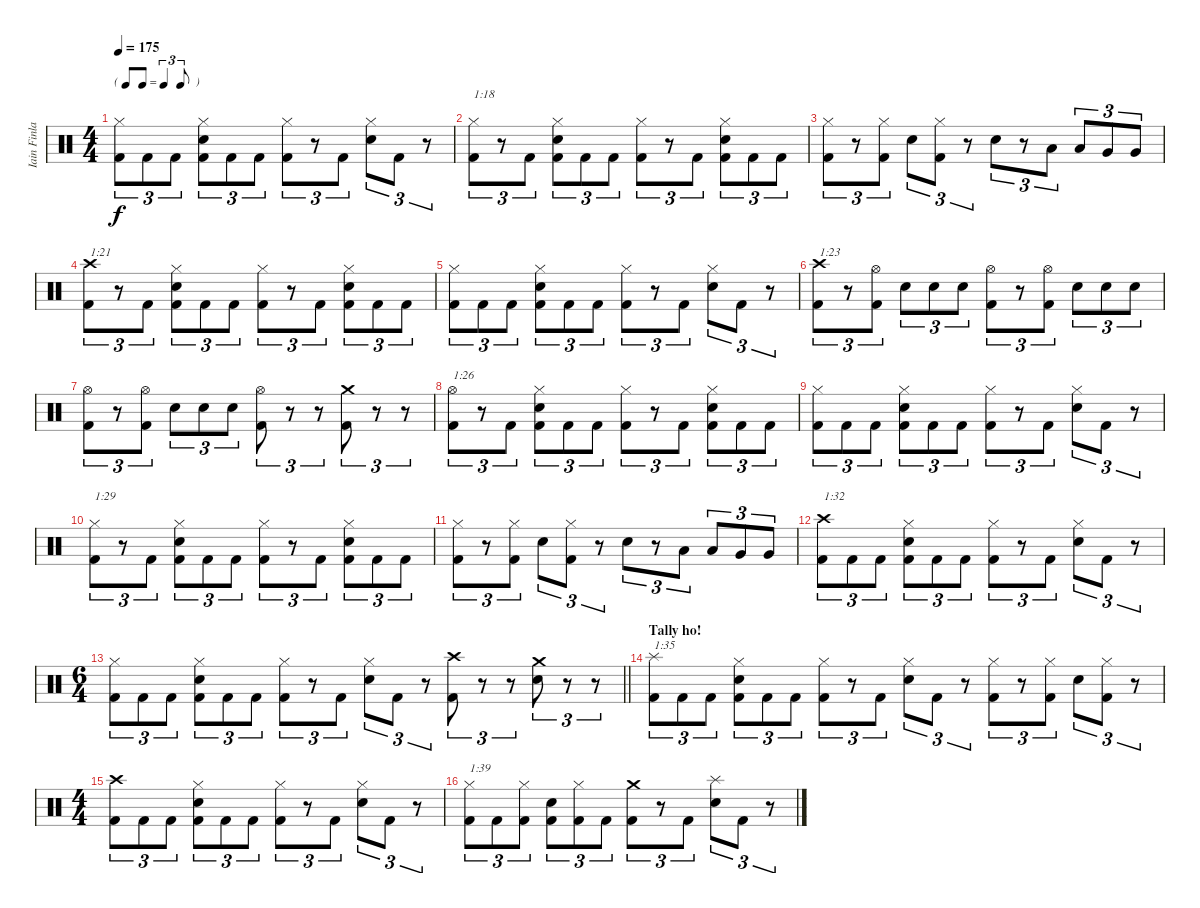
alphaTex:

\track ("Iain Finlay" "Iain Finla") {instrument percussion}
\staff {score}
\articulation defaults
\ts (4 4)
\tf triplet8th
\tempo 175
\clef neutral
\ks c
("Hi-Hat (closed)" "Kick (hit) 2").8{tu (3 2) dy f} "Kick (hit) 2".8{tu (3 2)} "Kick (hit) 2".8{tu (3 2)} ("Hi-Hat (closed)" "Electric Snare (hit)" "Kick (hit) 2").8{tu (3 2)} "Kick (hit) 2".8{tu (3 2)} "Kick (hit) 2".8{tu (3 2)} ("Hi-Hat (closed)" "Kick (hit) 2").8{tu (3 2)} r.8{tu (3 2)} "Kick (hit) 2".8{tu (3 2)} ("Hi-Hat (closed)" "Electric Snare (hit)").8{tu (3 2)} "Kick (hit) 2".8{tu (3 2)} r.8{tu (3 2)} |
("Hi-Hat (closed)" "Kick (hit) 2").8{tu (3 2) txt "1:18"} r.8{tu (3 2)} "Kick (hit) 2".8{tu (3 2)} ("Hi-Hat (closed)" "Electric Snare (hit)" "Kick (hit) 2").8{tu (3 2)} "Kick (hit) 2".8{tu (3 2)} "Kick (hit) 2".8{tu (3 2)} ("Hi-Hat (closed)" "Kick (hit) 2").8{tu (3 2)} r.8{tu (3 2)} "Kick (hit) 2".8{tu (3 2)} ("Hi-Hat (closed)" "Electric Snare (hit)" "Kick (hit) 2").8{tu (3 2)} "Kick (hit) 2".8{tu (3 2)} "Kick (hit) 2".8{tu (3 2)} |
("Hi-Hat (closed)" "Kick (hit) 2").8{tu (3 2)} r.8{tu (3 2)} ("Hi-Hat (closed)" "Kick (hit) 2").8{tu (3 2)} "Electric Snare (hit)".8{tu (3 2)} ("Hi-Hat (closed)" "Kick (hit) 2").8{tu (3 2)} r.8{tu (3 2)} "Electric Snare (hit)".8{tu (3 2)} r.8{tu (3 2)} "Low Tom (hit)".8{tu (3 2)} "Low Tom (hit)".8{tu (3 2)} "Very Low Tom (hit)".8{tu (3 2)} "Very Low Tom (hit)".8{tu (3 2)} |
("Crash high (hit)" "Kick (hit) 2").8{tu (3 2) txt "1:21"} r.8{tu (3 2)} "Kick (hit) 2".8{tu (3 2)} ("Hi-Hat (closed)" "Electric Snare (hit)" "Kick (hit) 2").8{tu (3 2)} "Kick (hit) 2".8{tu (3 2)} "Kick (hit) 2".8{tu (3 2)} ("Hi-Hat (closed)" "Kick (hit) 2").8{tu (3 2)} r.8{tu (3 2)} "Kick (hit) 2".8{tu (3 2)} ("Hi-Hat (closed)" "Electric Snare (hit)" "Kick (hit) 2").8{tu (3 2)} "Kick (hit) 2".8{tu (3 2)} "Kick (hit) 2".8{tu (3 2)} |
("Hi-Hat (closed)" "Kick (hit) 2").8{tu (3 2)} "Kick (hit) 2".8{tu (3 2)} "Kick (hit) 2".8{tu (3 2)} ("Hi-Hat (closed)" "Electric Snare (hit)" "Kick (hit) 2").8{tu (3 2)} "Kick (hit) 2".8{tu (3 2)} "Kick (hit) 2".8{tu (3 2)} ("Hi-Hat (closed)" "Kick (hit) 2").8{tu (3 2)} r.8{tu (3 2)} "Kick (hit) 2".8{tu (3 2)} ("Hi-Hat (closed)" "Electric Snare (hit)").8{tu (3 2)} "Kick (hit) 2".8{tu (3 2)} r.8{tu (3 2)} |
("Crash high (hit)" "Kick (hit) 2").8{tu (3 2) txt "1:23"} r.8{tu (3 2)} ("Hi-Hat (open)" "Kick (hit) 2").8{tu (3 2)} "Electric Snare (hit)".8{tu (3 2)} "Electric Snare (hit)".8{tu (3 2)} "Electric Snare (hit)".8{tu (3 2)} ("Hi-Hat (open)" "Kick (hit) 2").8{tu (3 2)} r.8{tu (3 2)} ("Hi-Hat (open)" "Kick (hit) 2").8{tu (3 2)} "Electric Snare (hit)".8{tu (3 2)} "Electric Snare (hit)".8{tu (3 2)} "Electric Snare (hit)".8{tu (3 2)} |
("Hi-Hat (open)" "Kick (hit) 2").8{tu (3 2)} r.8{tu (3 2)} ("Hi-Hat (open)" "Kick (hit) 2").8{tu (3 2)} "Electric Snare (hit)".8{tu (3 2)} "Electric Snare (hit)".8{tu (3 2)} "Electric Snare (hit)".8{tu (3 2)} ("Hi-Hat (open)" "Kick (hit) 2").8{tu (3 2)} r.8{tu (3 2)} r.8{tu (3 2)} ("Crash medium (hit)" "Kick (hit) 2").8{tu (3 2)} r.8{tu (3 2)} r.8{tu (3 2)} |
("Hi-Hat (open)" "Kick (hit) 2").8{tu (3 2) txt "1:26"} r.8{tu (3 2)} "Kick (hit) 2".8{tu (3 2)} ("Hi-Hat (closed)" "Electric Snare (hit)" "Kick (hit) 2").8{tu (3 2)} "Kick (hit) 2".8{tu (3 2)} "Kick (hit) 2".8{tu (3 2)} ("Hi-Hat (closed)" "Kick (hit) 2").8{tu (3 2)} r.8{tu (3 2)} "Kick (hit) 2".8{tu (3 2)} ("Hi-Hat (closed)" "Electric Snare (hit)" "Kick (hit) 2").8{tu (3 2)} "Kick (hit) 2".8{tu (3 2)} "Kick (hit) 2".8{tu (3 2)} |
("Hi-Hat (closed)" "Kick (hit) 2").8{tu (3 2)} "Kick (hit) 2".8{tu (3 2)} "Kick (hit) 2".8{tu (3 2)} ("Hi-Hat (closed)" "Electric Snare (hit)" "Kick (hit) 2").8{tu (3 2)} "Kick (hit) 2".8{tu (3 2)} "Kick (hit) 2".8{tu (3 2)} ("Hi-Hat (closed)" "Kick (hit) 2").8{tu (3 2)} r.8{tu (3 2)} "Kick (hit) 2".8{tu (3 2)} ("Hi-Hat (closed)" "Electric Snare (hit)").8{tu (3 2)} "Kick (hit) 2".8{tu (3 2)} r.8{tu (3 2)} |
("Hi-Hat (closed)" "Kick (hit) 2").8{tu (3 2) txt "1:29"} r.8{tu (3 2)} "Kick (hit) 2".8{tu (3 2)} ("Hi-Hat (closed)" "Electric Snare (hit)" "Kick (hit) 2").8{tu (3 2)} "Kick (hit) 2".8{tu (3 2)} "Kick (hit) 2".8{tu (3 2)} ("Hi-Hat (closed)" "Kick (hit) 2").8{tu (3 2)} r.8{tu (3 2)} "Kick (hit) 2".8{tu (3 2)} ("Hi-Hat (closed)" "Electric Snare (hit)" "Kick (hit) 2").8{tu (3 2)} "Kick (hit) 2".8{tu (3 2)} "Kick (hit) 2".8{tu (3 2)} |
("Hi-Hat (closed)" "Kick (hit) 2").8{tu (3 2)} r.8{tu (3 2)} ("Hi-Hat (closed)" "Kick (hit) 2").8{tu (3 2)} "Electric Snare (hit)".8{tu (3 2)} ("Hi-Hat (closed)" "Kick (hit) 2").8{tu (3 2)} r.8{tu (3 2)} "Electric Snare (hit)".8{tu (3 2)} r.8{tu (3 2)} "Low Tom (hit)".8{tu (3 2)} "Low Tom (hit)".8{tu (3 2)} "Very Low Tom (hit)".8{tu (3 2)} "Very Low Tom (hit)".8{tu (3 2)} |
("Crash high (hit)" "Kick (hit) 2").8{tu (3 2) txt "1:32"} "Kick (hit) 2".8{tu (3 2)} "Kick (hit) 2".8{tu (3 2)} ("Hi-Hat (closed)" "Electric Snare (hit)" "Kick (hit) 2").8{tu (3 2)} "Kick (hit) 2".8{tu (3 2)} "Kick (hit) 2".8{tu (3 2)} ("Hi-Hat (closed)" "Kick (hit) 2").8{tu (3 2)} r.8{tu (3 2)} "Kick (hit) 2".8{tu (3 2)} ("Hi-Hat (closed)" "Electric Snare (hit)").8{tu (3 2)} "Kick (hit) 2".8{tu (3 2)} r.8{tu (3 2)} |
\ts (6 4)
\barLineRight lightlight
("Hi-Hat (closed)" "Kick (hit) 2").8{tu (3 2)} "Kick (hit) 2".8{tu (3 2)} "Kick (hit) 2".8{tu (3 2)} ("Hi-Hat (closed)" "Electric Snare (hit)" "Kick (hit) 2").8{tu (3 2)} "Kick (hit) 2".8{tu (3 2)} "Kick (hit) 2".8{tu (3 2)} ("Hi-Hat (closed)" "Kick (hit) 2").8{tu (3 2)} r.8{tu (3 2)} "Kick (hit) 2".8{tu (3 2)} ("Hi-Hat (closed)" "Electric Snare (hit)").8{tu (3 2)} "Kick (hit) 2".8{tu (3 2)} r.8{tu (3 2)} ("Crash high (hit)" "Kick (hit) 2").8{tu (3 2)} r.8{tu (3 2)} r.8{tu (3 2)} ("Crash medium (hit)" "Electric Snare (hit)").8{tu (3 2)} r.8{tu (3 2)} r.8{tu (3 2)} |
\section ("" "Tally ho!")
("Splash (hit)" "Kick (hit) 2").8{tu (3 2) txt "1:35"} "Kick (hit) 2".8{tu (3 2)} "Kick (hit) 2".8{tu (3 2)} ("Hi-Hat (closed)" "Electric Snare (hit)" "Kick (hit) 2").8{tu (3 2)} "Kick (hit) 2".8{tu (3 2)} "Kick (hit) 2".8{tu (3 2)} ("Hi-Hat (closed)" "Kick (hit) 2").8{tu (3 2)} r.8{tu (3 2)} "Kick (hit) 2".8{tu (3 2)} ("Hi-Hat (closed)" "Electric Snare (hit)").8{tu (3 2)} "Kick (hit) 2".8{tu (3 2)} r.8{tu (3 2)} ("Hi-Hat (closed)" "Kick (hit) 2").8{tu (3 2)} r.8{tu (3 2)} ("Hi-Hat (closed)" "Kick (hit) 2").8{tu (3 2)} "Electric Snare (hit)".8{tu (3 2)} ("Hi-Hat (closed)" "Kick (hit) 2").8{tu (3 2)} r.8{tu (3 2)} |
\ts (4 4)
("Crash high (hit)" "Kick (hit) 2").8{tu (3 2)} "Kick (hit) 2".8{tu (3 2)} "Kick (hit) 2".8{tu (3 2)} ("Hi-Hat (closed)" "Electric Snare (hit)" "Kick (hit) 2").8{tu (3 2)} "Kick (hit) 2".8{tu (3 2)} "Kick (hit) 2".8{tu (3 2)} ("Hi-Hat (closed)" "Kick (hit) 2").8{tu (3 2)} r.8{tu (3 2)} "Kick (hit) 2".8{tu (3 2)} ("Hi-Hat (closed)" "Electric Snare (hit)").8{tu (3 2)} "Kick (hit) 2".8{tu (3 2)} r.8{tu (3 2)} |
("Hi-Hat (closed)" "Kick (hit) 2").8{tu (3 2) txt "1:39"} "Kick (hit) 2".8{tu (3 2)} ("Hi-Hat (closed)" "Kick (hit) 2").8{tu (3 2)} ("Electric Snare (hit)" "Kick (hit) 2").8{tu (3 2)} ("Hi-Hat (closed)" "Kick (hit) 2").8{tu (3 2)} "Kick (hit) 2".8{tu (3 2)} ("Crash medium (hit)" "Kick (hit) 2").8{tu (3 2)} r.8{tu (3 2)} "Kick (hit) 2".8{tu (3 2)} ("Splash (hit)" "Electric Snare (hit)").8{tu (3 2)} "Kick (hit) 2".8{tu (3 2)} r.8{tu (3 2)}
